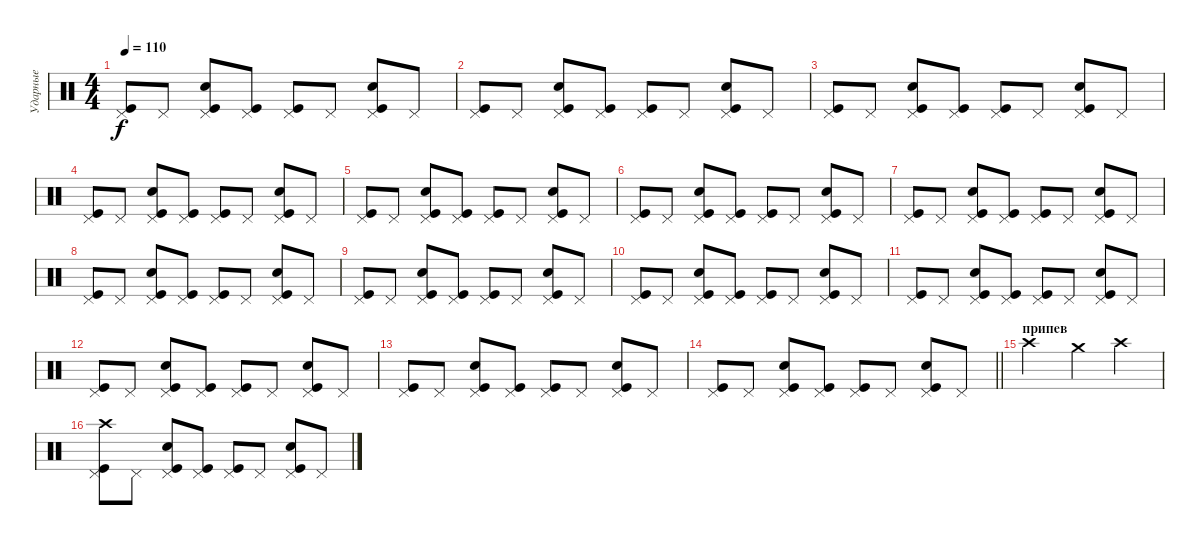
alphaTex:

\track ("Ударные" "Ударные") {instrument percussion}
\staff {score}
\articulation defaults
\ts (4 4)
\tempo 110
\clef neutral
\ks c
("Pedal Hi-Hat (hit)" "Kick (hit)").8{dy f} "Pedal Hi-Hat (hit)".8 ("Pedal Hi-Hat (hit)" "Kick (hit)" "Snare (hit) 2").8 ("Pedal Hi-Hat (hit)" "Kick (hit)").8 ("Pedal Hi-Hat (hit)" "Kick (hit)").8 "Pedal Hi-Hat (hit)".8 ("Pedal Hi-Hat (hit)" "Kick (hit)" "Snare (hit) 2").8 "Pedal Hi-Hat (hit)".8 |
("Pedal Hi-Hat (hit)" "Kick (hit)").8 "Pedal Hi-Hat (hit)".8 ("Pedal Hi-Hat (hit)" "Kick (hit)" "Snare (hit) 2").8 ("Pedal Hi-Hat (hit)" "Kick (hit)").8 ("Pedal Hi-Hat (hit)" "Kick (hit)").8 "Pedal Hi-Hat (hit)".8 ("Pedal Hi-Hat (hit)" "Kick (hit)" "Snare (hit) 2").8 "Pedal Hi-Hat (hit)".8 |
("Pedal Hi-Hat (hit)" "Kick (hit)").8 "Pedal Hi-Hat (hit)".8 ("Pedal Hi-Hat (hit)" "Kick (hit)" "Snare (hit) 2").8 ("Pedal Hi-Hat (hit)" "Kick (hit)").8 ("Pedal Hi-Hat (hit)" "Kick (hit)").8 "Pedal Hi-Hat (hit)".8 ("Pedal Hi-Hat (hit)" "Kick (hit)" "Snare (hit) 2").8 "Pedal Hi-Hat (hit)".8 |
("Pedal Hi-Hat (hit)" "Kick (hit)").8 "Pedal Hi-Hat (hit)".8 ("Pedal Hi-Hat (hit)" "Kick (hit)" "Snare (hit) 2").8 ("Pedal Hi-Hat (hit)" "Kick (hit)").8 ("Pedal Hi-Hat (hit)" "Kick (hit)").8 "Pedal Hi-Hat (hit)".8 ("Pedal Hi-Hat (hit)" "Kick (hit)" "Snare (hit) 2").8 "Pedal Hi-Hat (hit)".8 |
("Pedal Hi-Hat (hit)" "Kick (hit)").8 "Pedal Hi-Hat (hit)".8 ("Pedal Hi-Hat (hit)" "Kick (hit)" "Snare (hit) 2").8 ("Pedal Hi-Hat (hit)" "Kick (hit)").8 ("Pedal Hi-Hat (hit)" "Kick (hit)").8 "Pedal Hi-Hat (hit)".8 ("Pedal Hi-Hat (hit)" "Kick (hit)" "Snare (hit) 2").8 "Pedal Hi-Hat (hit)".8 |
("Pedal Hi-Hat (hit)" "Kick (hit)").8 "Pedal Hi-Hat (hit)".8 ("Pedal Hi-Hat (hit)" "Kick (hit)" "Snare (hit) 2").8 ("Pedal Hi-Hat (hit)" "Kick (hit)").8 ("Pedal Hi-Hat (hit)" "Kick (hit)").8 "Pedal Hi-Hat (hit)".8 ("Pedal Hi-Hat (hit)" "Kick (hit)" "Snare (hit) 2").8 "Pedal Hi-Hat (hit)".8 |
("Pedal Hi-Hat (hit)" "Kick (hit)").8 "Pedal Hi-Hat (hit)".8 ("Pedal Hi-Hat (hit)" "Kick (hit)" "Snare (hit) 2").8 ("Pedal Hi-Hat (hit)" "Kick (hit)").8 ("Pedal Hi-Hat (hit)" "Kick (hit)").8 "Pedal Hi-Hat (hit)".8 ("Pedal Hi-Hat (hit)" "Kick (hit)" "Snare (hit) 2").8 "Pedal Hi-Hat (hit)".8 |
("Pedal Hi-Hat (hit)" "Kick (hit)").8 "Pedal Hi-Hat (hit)".8 ("Pedal Hi-Hat (hit)" "Kick (hit)" "Snare (hit) 2").8 ("Pedal Hi-Hat (hit)" "Kick (hit)").8 ("Pedal Hi-Hat (hit)" "Kick (hit)").8 "Pedal Hi-Hat (hit)".8 ("Pedal Hi-Hat (hit)" "Kick (hit)" "Snare (hit) 2").8 "Pedal Hi-Hat (hit)".8 |
("Pedal Hi-Hat (hit)" "Kick (hit)").8 "Pedal Hi-Hat (hit)".8 ("Pedal Hi-Hat (hit)" "Kick (hit)" "Snare (hit) 2").8 ("Pedal Hi-Hat (hit)" "Kick (hit)").8 ("Pedal Hi-Hat (hit)" "Kick (hit)").8 "Pedal Hi-Hat (hit)".8 ("Pedal Hi-Hat (hit)" "Kick (hit)" "Snare (hit) 2").8 "Pedal Hi-Hat (hit)".8 |
("Pedal Hi-Hat (hit)" "Kick (hit)").8 "Pedal Hi-Hat (hit)".8 ("Pedal Hi-Hat (hit)" "Kick (hit)" "Snare (hit) 2").8 ("Pedal Hi-Hat (hit)" "Kick (hit)").8 ("Pedal Hi-Hat (hit)" "Kick (hit)").8 "Pedal Hi-Hat (hit)".8 ("Pedal Hi-Hat (hit)" "Kick (hit)" "Snare (hit) 2").8 "Pedal Hi-Hat (hit)".8 |
("Pedal Hi-Hat (hit)" "Kick (hit)").8 "Pedal Hi-Hat (hit)".8 ("Pedal Hi-Hat (hit)" "Kick (hit)" "Snare (hit) 2").8 ("Pedal Hi-Hat (hit)" "Kick (hit)").8 ("Pedal Hi-Hat (hit)" "Kick (hit)").8 "Pedal Hi-Hat (hit)".8 ("Pedal Hi-Hat (hit)" "Kick (hit)" "Snare (hit) 2").8 "Pedal Hi-Hat (hit)".8 |
("Pedal Hi-Hat (hit)" "Kick (hit)").8 "Pedal Hi-Hat (hit)".8 ("Pedal Hi-Hat (hit)" "Kick (hit)" "Snare (hit) 2").8 ("Pedal Hi-Hat (hit)" "Kick (hit)").8 ("Pedal Hi-Hat (hit)" "Kick (hit)").8 "Pedal Hi-Hat (hit)".8 ("Pedal Hi-Hat (hit)" "Kick (hit)" "Snare (hit) 2").8 "Pedal Hi-Hat (hit)".8 |
("Pedal Hi-Hat (hit)" "Kick (hit)").8 "Pedal Hi-Hat (hit)".8 ("Pedal Hi-Hat (hit)" "Kick (hit)" "Snare (hit) 2").8 ("Pedal Hi-Hat (hit)" "Kick (hit)").8 ("Pedal Hi-Hat (hit)" "Kick (hit)").8 "Pedal Hi-Hat (hit)".8 ("Pedal Hi-Hat (hit)" "Kick (hit)" "Snare (hit) 2").8 "Pedal Hi-Hat (hit)".8 |
\barLineRight lightlight
("Pedal Hi-Hat (hit)" "Kick (hit)").8 "Pedal Hi-Hat (hit)".8 ("Pedal Hi-Hat (hit)" "Kick (hit)" "Snare (hit) 2").8 ("Pedal Hi-Hat (hit)" "Kick (hit)").8 ("Pedal Hi-Hat (hit)" "Kick (hit)").8 "Pedal Hi-Hat (hit)".8 ("Pedal Hi-Hat (hit)" "Kick (hit)" "Snare (hit) 2").8 "Pedal Hi-Hat (hit)".8 |
\section ("" "припев")
"Crash high (hit)".2 "Crash medium (hit)".4 "Crash high (hit)".4 |
("Pedal Hi-Hat (hit)" "Kick (hit)" "Crash high (hit)").8 "Pedal Hi-Hat (hit)".8 ("Pedal Hi-Hat (hit)" "Kick (hit)" "Snare (hit) 2").8 ("Pedal Hi-Hat (hit)" "Kick (hit)").8 ("Pedal Hi-Hat (hit)" "Kick (hit)").8 "Pedal Hi-Hat (hit)".8 ("Pedal Hi-Hat (hit)" "Kick (hit)" "Snare (hit) 2").8 "Pedal Hi-Hat (hit)".8
